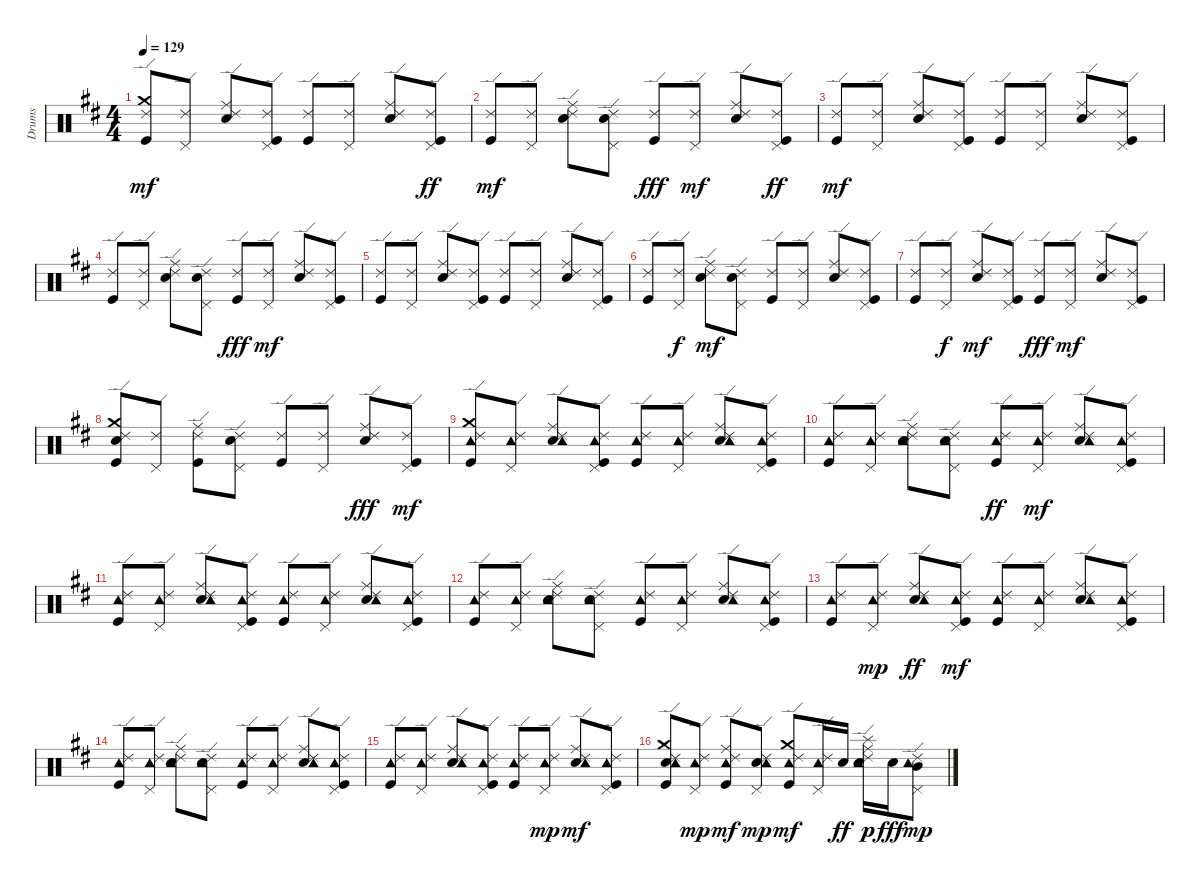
\track ("Drums" "Drums") {instrument percussion}
\staff {score}
\articulation defaults
\ts (4 4)
\tempo 129
\clef neutral
\ks d
("Kick (hit)" "Crash medium (hit)" "Ride (edge) 2").8{dy mf} ("Pedal Hi-Hat (hit)" "Ride (edge) 2").8 ("Snare (hit) 2" "Ride (middle)" "Ride (edge) 2").8 ("Kick (hit)" "Pedal Hi-Hat (hit)" "Ride (edge) 2").8 ("Kick (hit)" "Ride (edge) 2").8 ("Pedal Hi-Hat (hit)" "Ride (edge) 2").8 ("Snare (hit) 2" "Ride (middle)" "Ride (edge) 2").8 ("Kick (hit)" "Pedal Hi-Hat (hit)" "Ride (edge) 2").8{dy ff} |
("Kick (hit)" "Ride (edge) 2").8{dy mf} ("Pedal Hi-Hat (hit)" "Ride (edge) 2").8 ("Snare (hit) 2" "Ride (middle)" "Ride (edge) 2").8 ("Snare (hit) 2" "Pedal Hi-Hat (hit)" "Ride (edge) 2").8 ("Kick (hit)" "Ride (edge) 2").8{dy fff} ("Pedal Hi-Hat (hit)" "Ride (edge) 2").8{dy mf} ("Snare (hit) 2" "Ride (middle)" "Ride (edge) 2").8 ("Kick (hit)" "Pedal Hi-Hat (hit)" "Ride (edge) 2").8{dy ff} |
("Kick (hit)" "Ride (edge) 2").8{dy mf} ("Pedal Hi-Hat (hit)" "Ride (edge) 2").8 ("Snare (hit) 2" "Ride (middle)" "Ride (edge) 2").8 ("Kick (hit)" "Pedal Hi-Hat (hit)" "Ride (edge) 2").8 ("Kick (hit)" "Ride (edge) 2").8 ("Pedal Hi-Hat (hit)" "Ride (edge) 2").8 ("Snare (hit) 2" "Ride (middle)" "Ride (edge) 2").8 ("Kick (hit)" "Pedal Hi-Hat (hit)" "Ride (edge) 2").8 |
("Kick (hit)" "Ride (edge) 2").8 ("Pedal Hi-Hat (hit)" "Ride (edge) 2").8 ("Snare (hit) 2" "Ride (middle)" "Ride (edge) 2").8 ("Snare (hit) 2" "Pedal Hi-Hat (hit)" "Ride (edge) 2").8 ("Kick (hit)" "Ride (edge) 2").8{dy fff} ("Pedal Hi-Hat (hit)" "Ride (edge) 2").8{dy mf} ("Snare (hit) 2" "Ride (middle)" "Ride (edge) 2").8 ("Kick (hit)" "Pedal Hi-Hat (hit)" "Ride (edge) 2").8 |
("Kick (hit)" "Ride (edge) 2").8 ("Pedal Hi-Hat (hit)" "Ride (edge) 2").8 ("Snare (hit) 2" "Ride (middle)" "Ride (edge) 2").8 ("Kick (hit)" "Pedal Hi-Hat (hit)" "Ride (edge) 2").8 ("Kick (hit)" "Ride (edge) 2").8 ("Pedal Hi-Hat (hit)" "Ride (edge) 2").8 ("Snare (hit) 2" "Ride (middle)" "Ride (edge) 2").8 ("Kick (hit)" "Pedal Hi-Hat (hit)" "Ride (edge) 2").8 |
("Kick (hit)" "Ride (edge) 2").8 ("Pedal Hi-Hat (hit)" "Ride (edge) 2").8{dy f} ("Snare (hit) 2" "Ride (middle)" "Ride (edge) 2").8{dy mf} ("Snare (hit) 2" "Pedal Hi-Hat (hit)" "Ride (edge) 2").8 ("Kick (hit)" "Ride (edge) 2").8 ("Pedal Hi-Hat (hit)" "Ride (edge) 2").8 ("Snare (hit) 2" "Ride (middle)" "Ride (edge) 2").8 ("Kick (hit)" "Pedal Hi-Hat (hit)" "Ride (edge) 2").8 |
("Kick (hit)" "Ride (edge) 2").8 ("Pedal Hi-Hat (hit)" "Ride (edge) 2").8{dy f} ("Snare (hit) 2" "Ride (middle)" "Ride (edge) 2").8{dy mf} ("Kick (hit)" "Pedal Hi-Hat (hit)" "Ride (edge) 2").8 ("Kick (hit)" "Ride (edge) 2").8{dy fff} ("Pedal Hi-Hat (hit)" "Ride (edge) 2").8{dy mf} ("Snare (hit) 2" "Ride (middle)" "Ride (edge) 2").8 ("Kick (hit)" "Pedal Hi-Hat (hit)" "Ride (edge) 2").8 |
("Kick (hit)" "Snare (hit) 2" "Crash medium (hit)" "Ride (edge) 2").8 ("Pedal Hi-Hat (hit)" "Ride (edge) 2").8 ("Kick (hit)" "Ride (middle)" "Ride (edge) 2").8 ("Snare (hit) 2" "Pedal Hi-Hat (hit)" "Ride (edge) 2").8 ("Kick (hit)" "Ride (edge) 2").8 ("Pedal Hi-Hat (hit)" "Ride (edge) 2").8 ("Snare (hit) 2" "Ride (middle)" "Ride (edge) 2").8{dy fff} ("Kick (hit)" "Pedal Hi-Hat (hit)" "Ride (edge) 2").8{dy mf} |
("Kick (hit)" "Tambourine (hit)" "Crash medium (hit)" "Ride (edge) 2").8 ("Pedal Hi-Hat (hit)" "Tambourine (hit)" "Ride (edge) 2").8 ("Snare (hit) 2" "Ride (middle)" "Tambourine (hit)" "Ride (edge) 2").8 ("Kick (hit)" "Pedal Hi-Hat (hit)" "Tambourine (hit)" "Ride (edge) 2").8 ("Kick (hit)" "Tambourine (hit)" "Ride (edge) 2").8 ("Pedal Hi-Hat (hit)" "Tambourine (hit)" "Ride (edge) 2").8 ("Snare (hit) 2" "Ride (middle)" "Tambourine (hit)" "Ride (edge) 2").8 ("Kick (hit)" "Pedal Hi-Hat (hit)" "Tambourine (hit)" "Ride (edge) 2").8 |
("Kick (hit)" "Tambourine (hit)" "Ride (edge) 2").8 ("Pedal Hi-Hat (hit)" "Tambourine (hit)" "Ride (edge) 2").8 ("Snare (hit) 2" "Ride (middle)" "Tambourine (hit)" "Ride (edge) 2").8 ("Snare (hit) 2" "Pedal Hi-Hat (hit)" "Tambourine (hit)" "Ride (edge) 2").8 ("Kick (hit)" "Tambourine (hit)" "Ride (edge) 2").8{dy ff} ("Pedal Hi-Hat (hit)" "Tambourine (hit)" "Ride (edge) 2").8{dy mf} ("Snare (hit) 2" "Ride (middle)" "Tambourine (hit)" "Ride (edge) 2").8 ("Kick (hit)" "Pedal Hi-Hat (hit)" "Tambourine (hit)" "Ride (edge) 2").8 |
("Kick (hit)" "Tambourine (hit)" "Ride (edge) 2").8 ("Pedal Hi-Hat (hit)" "Tambourine (hit)" "Ride (edge) 2").8 ("Snare (hit) 2" "Ride (middle)" "Tambourine (hit)" "Ride (edge) 2").8 ("Kick (hit)" "Pedal Hi-Hat (hit)" "Tambourine (hit)" "Ride (edge) 2").8 ("Kick (hit)" "Tambourine (hit)" "Ride (edge) 2").8 ("Pedal Hi-Hat (hit)" "Tambourine (hit)" "Ride (edge) 2").8 ("Snare (hit) 2" "Ride (middle)" "Tambourine (hit)" "Ride (edge) 2").8 ("Kick (hit)" "Pedal Hi-Hat (hit)" "Tambourine (hit)" "Ride (edge) 2").8 |
("Kick (hit)" "Tambourine (hit)" "Ride (edge) 2").8 ("Pedal Hi-Hat (hit)" "Tambourine (hit)" "Ride (edge) 2").8 ("Snare (hit) 2" "Ride (middle)" "Tambourine (hit)" "Ride (edge) 2").8 ("Snare (hit) 2" "Pedal Hi-Hat (hit)" "Tambourine (hit)" "Ride (edge) 2").8 ("Kick (hit)" "Tambourine (hit)" "Ride (edge) 2").8 ("Pedal Hi-Hat (hit)" "Tambourine (hit)" "Ride (edge) 2").8 ("Snare (hit) 2" "Ride (middle)" "Tambourine (hit)" "Ride (edge) 2").8 ("Kick (hit)" "Pedal Hi-Hat (hit)" "Tambourine (hit)" "Ride (edge) 2").8 |
("Kick (hit)" "Tambourine (hit)" "Ride (edge) 2").8 ("Pedal Hi-Hat (hit)" "Tambourine (hit)" "Ride (edge) 2").8{dy mp} ("Snare (hit) 2" "Ride (middle)" "Tambourine (hit)" "Ride (edge) 2").8{dy ff} ("Kick (hit)" "Pedal Hi-Hat (hit)" "Tambourine (hit)" "Ride (edge) 2").8{dy mf} ("Kick (hit)" "Tambourine (hit)" "Ride (edge) 2").8 ("Pedal Hi-Hat (hit)" "Tambourine (hit)" "Ride (edge) 2").8 ("Snare (hit) 2" "Ride (middle)" "Tambourine (hit)" "Ride (edge) 2").8 ("Kick (hit)" "Pedal Hi-Hat (hit)" "Tambourine (hit)" "Ride (edge) 2").8 |
("Kick (hit)" "Tambourine (hit)" "Ride (edge) 2").8 ("Pedal Hi-Hat (hit)" "Tambourine (hit)" "Ride (edge) 2").8 ("Snare (hit) 2" "Ride (middle)" "Tambourine (hit)" "Ride (edge) 2").8 ("Snare (hit) 2" "Pedal Hi-Hat (hit)" "Tambourine (hit)" "Ride (edge) 2").8 ("Kick (hit)" "Tambourine (hit)" "Ride (edge) 2").8 ("Pedal Hi-Hat (hit)" "Tambourine (hit)" "Ride (edge) 2").8 ("Snare (hit) 2" "Ride (middle)" "Tambourine (hit)" "Ride (edge) 2").8 ("Kick (hit)" "Pedal Hi-Hat (hit)" "Tambourine (hit)" "Ride (edge) 2").8 |
("Kick (hit)" "Tambourine (hit)" "Ride (edge) 2").8 ("Pedal Hi-Hat (hit)" "Tambourine (hit)" "Ride (edge) 2").8 ("Snare (hit) 2" "Ride (middle)" "Tambourine (hit)" "Ride (edge) 2").8 ("Kick (hit)" "Pedal Hi-Hat (hit)" "Tambourine (hit)" "Ride (edge) 2").8 ("Kick (hit)" "Tambourine (hit)" "Ride (edge) 2").8 ("Pedal Hi-Hat (hit)" "Tambourine (hit)" "Ride (edge) 2").8{dy mp} ("Snare (hit) 2" "Ride (middle)" "Tambourine (hit)" "Ride (edge) 2").8{dy mf} ("Kick (hit)" "Pedal Hi-Hat (hit)" "Tambourine (hit)" "Ride (edge) 2").8 |
("Kick (hit)" "Snare (hit) 2" "Tambourine (hit)" "Crash medium (hit)" "Ride (edge) 2").8 ("Pedal Hi-Hat (hit)" "Tambourine (hit)" "Ride (edge) 2").8{dy mp} ("Kick (hit)" "Ride (middle)" "Tambourine (hit)" "Ride (edge) 2").8{dy mf} ("Snare (hit) 2" "Pedal Hi-Hat (hit)" "Tambourine (hit)" "Ride (edge) 2").8{dy mp} ("Kick (hit)" "Tambourine (hit)" "Crash medium (hit)" "Ride (edge) 2").8{dy mf} ("Pedal Hi-Hat (hit)" "Tambourine (hit)" "Ride (edge) 2").16 "Snare (hit) 2".16{dy ff} ("Snare (hit) 2" "Ride (middle)" "Tambourine (hit)" "Splash (hit)" "Ride (edge) 2").16{dy p} "Snare (hit) 2".16{dy fff} ("Pedal Hi-Hat (hit)" "Mid Tom (hit)" "Tambourine (hit)" "Ride (edge) 2").8{dy mp}
